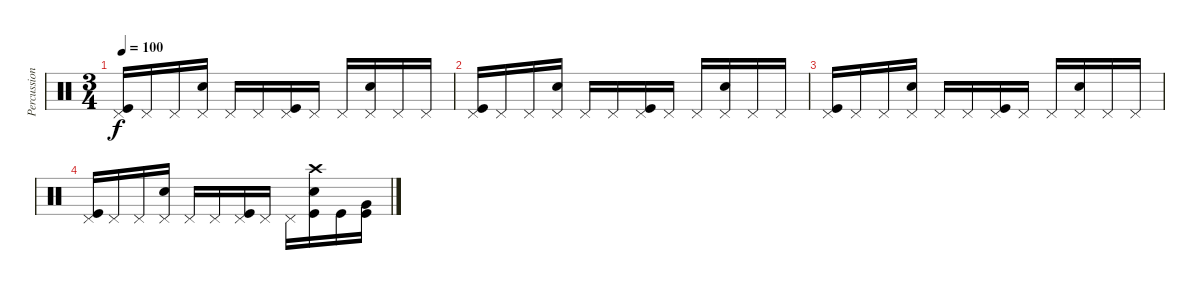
\track ("Percussion" "Percussion") {instrument percussion}
\staff {score}
\articulation defaults
\ts (3 4)
\tempo 100
\clef neutral
\ks c
("Pedal Hi-Hat (hit)" "Kick (hit)").16{dy f} "Pedal Hi-Hat (hit)".16 "Pedal Hi-Hat (hit)".16 ("Pedal Hi-Hat (hit)" "Snare (hit) 2").16 "Pedal Hi-Hat (hit)".16 "Pedal Hi-Hat (hit)".16 ("Pedal Hi-Hat (hit)" "Kick (hit)").16 "Pedal Hi-Hat (hit)".16 "Pedal Hi-Hat (hit)".16 ("Pedal Hi-Hat (hit)" "Snare (hit) 2").16 "Pedal Hi-Hat (hit)".16 "Pedal Hi-Hat (hit)".16 |
("Pedal Hi-Hat (hit)" "Kick (hit)").16 "Pedal Hi-Hat (hit)".16 "Pedal Hi-Hat (hit)".16 ("Pedal Hi-Hat (hit)" "Snare (hit) 2").16 "Pedal Hi-Hat (hit)".16 "Pedal Hi-Hat (hit)".16 ("Pedal Hi-Hat (hit)" "Kick (hit)").16 "Pedal Hi-Hat (hit)".16 "Pedal Hi-Hat (hit)".16 ("Pedal Hi-Hat (hit)" "Snare (hit) 2").16 "Pedal Hi-Hat (hit)".16 "Pedal Hi-Hat (hit)".16 |
("Pedal Hi-Hat (hit)" "Kick (hit)").16 "Pedal Hi-Hat (hit)".16 "Pedal Hi-Hat (hit)".16 ("Pedal Hi-Hat (hit)" "Snare (hit) 2").16 "Pedal Hi-Hat (hit)".16 "Pedal Hi-Hat (hit)".16 ("Pedal Hi-Hat (hit)" "Kick (hit)").16 "Pedal Hi-Hat (hit)".16 "Pedal Hi-Hat (hit)".16 ("Pedal Hi-Hat (hit)" "Snare (hit) 2").16 "Pedal Hi-Hat (hit)".16 "Pedal Hi-Hat (hit)".16 |
("Pedal Hi-Hat (hit)" "Kick (hit)").16 "Pedal Hi-Hat (hit)".16 "Pedal Hi-Hat (hit)".16 ("Pedal Hi-Hat (hit)" "Snare (hit) 2").16 "Pedal Hi-Hat (hit)".16 "Pedal Hi-Hat (hit)".16 ("Pedal Hi-Hat (hit)" "Kick (hit)").16 "Pedal Hi-Hat (hit)".16 "Pedal Hi-Hat (hit)".16 ("Crash high (hit)" "Snare (hit) 2" "Kick (hit)").16 "Kick (hit)".16 ("Very Low Tom (hit)" "Kick (hit)").16
